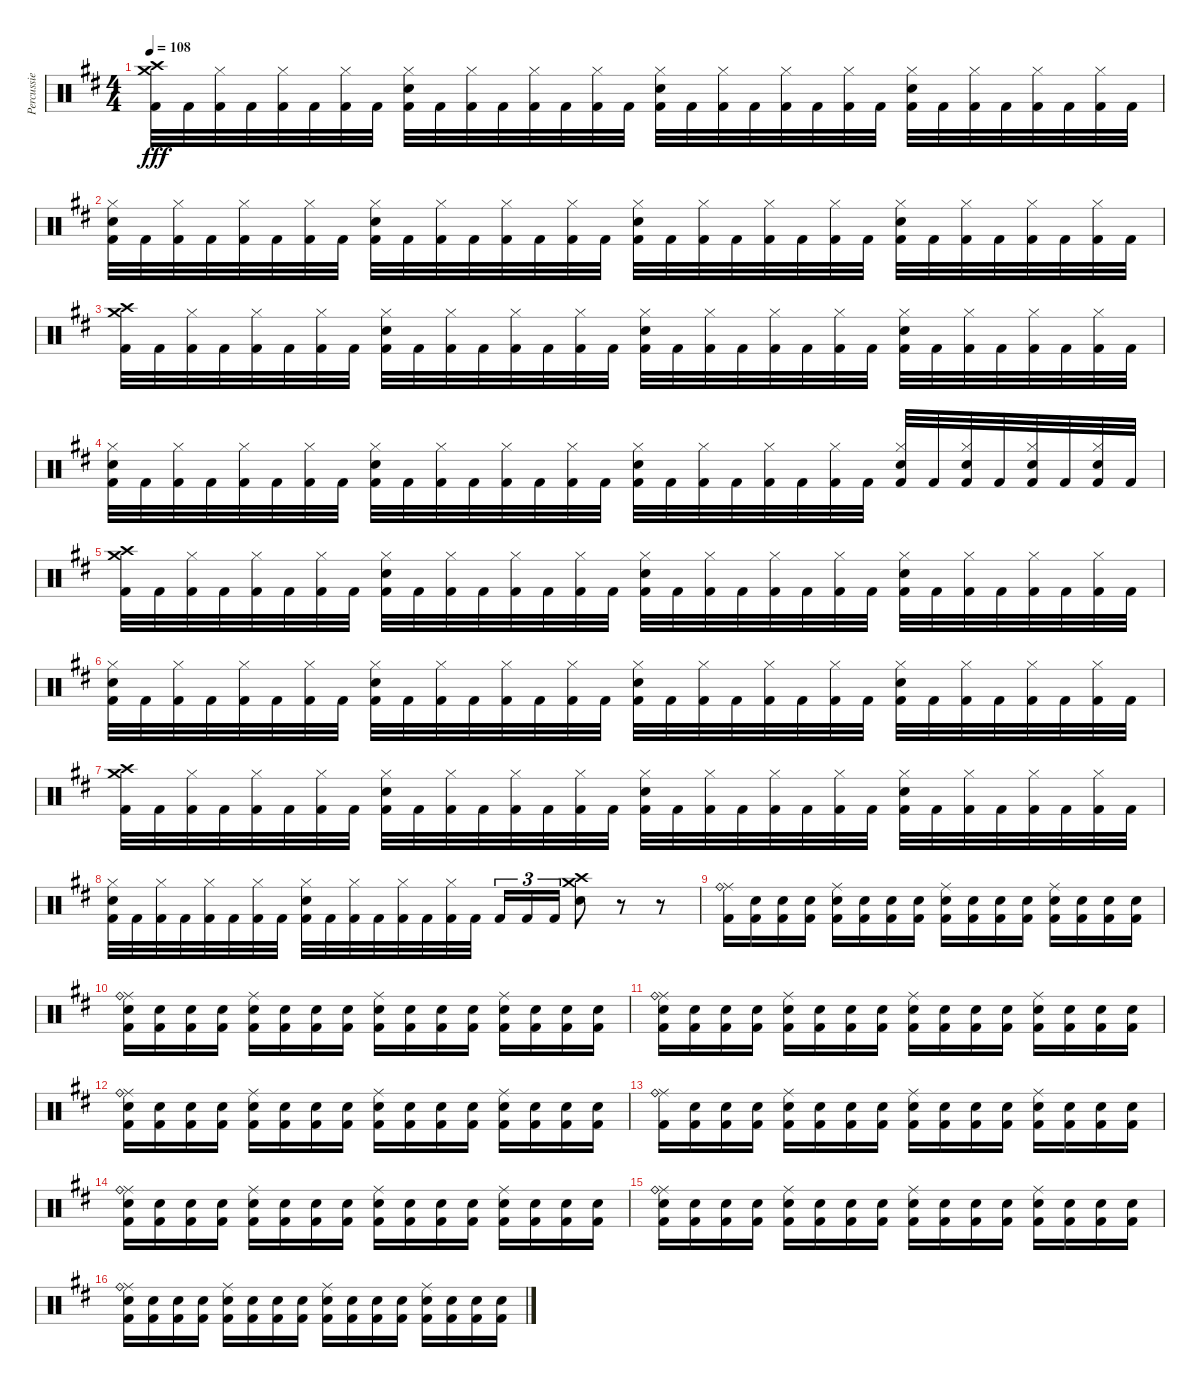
\track ("Percussie" "Percussie") {instrument percussion}
\staff {score}
\articulation defaults
\ts (4 4)
\tempo 108
\clef neutral
\ks d
("Crash high (hit)" "Crash medium (hit)" "Kick (hit) 2").32{dy fff} "Kick (hit) 2".32 ("Hi-Hat (closed)" "Kick (hit) 2").32 "Kick (hit) 2".32 ("Hi-Hat (closed)" "Kick (hit) 2").32 "Kick (hit) 2".32 ("Hi-Hat (closed)" "Kick (hit) 2").32 "Kick (hit) 2".32 ("Hi-Hat (closed)" "Snare (hit) 2" "Kick (hit) 2").32 "Kick (hit) 2".32 ("Hi-Hat (closed)" "Kick (hit) 2").32 "Kick (hit) 2".32 ("Hi-Hat (closed)" "Kick (hit) 2").32 "Kick (hit) 2".32 ("Hi-Hat (closed)" "Kick (hit) 2").32 "Kick (hit) 2".32 ("Hi-Hat (closed)" "Snare (hit) 2" "Kick (hit) 2").32 "Kick (hit) 2".32 ("Hi-Hat (closed)" "Kick (hit) 2").32 "Kick (hit) 2".32 ("Hi-Hat (closed)" "Kick (hit) 2").32 "Kick (hit) 2".32 ("Hi-Hat (closed)" "Kick (hit) 2").32 "Kick (hit) 2".32 ("Hi-Hat (closed)" "Snare (hit) 2" "Kick (hit) 2").32 "Kick (hit) 2".32 ("Hi-Hat (closed)" "Kick (hit) 2").32 "Kick (hit) 2".32 ("Hi-Hat (closed)" "Kick (hit) 2").32 "Kick (hit) 2".32 ("Hi-Hat (closed)" "Kick (hit) 2").32 "Kick (hit) 2".32 |
("Hi-Hat (closed)" "Snare (hit) 2" "Kick (hit) 2").32 "Kick (hit) 2".32 ("Hi-Hat (closed)" "Kick (hit) 2").32 "Kick (hit) 2".32 ("Hi-Hat (closed)" "Kick (hit) 2").32 "Kick (hit) 2".32 ("Hi-Hat (closed)" "Kick (hit) 2").32 "Kick (hit) 2".32 ("Hi-Hat (closed)" "Snare (hit) 2" "Kick (hit) 2").32 "Kick (hit) 2".32 ("Hi-Hat (closed)" "Kick (hit) 2").32 "Kick (hit) 2".32 ("Hi-Hat (closed)" "Kick (hit) 2").32 "Kick (hit) 2".32 ("Hi-Hat (closed)" "Kick (hit) 2").32 "Kick (hit) 2".32 ("Hi-Hat (closed)" "Snare (hit) 2" "Kick (hit) 2").32 "Kick (hit) 2".32 ("Hi-Hat (closed)" "Kick (hit) 2").32 "Kick (hit) 2".32 ("Hi-Hat (closed)" "Kick (hit) 2").32 "Kick (hit) 2".32 ("Hi-Hat (closed)" "Kick (hit) 2").32 "Kick (hit) 2".32 ("Hi-Hat (closed)" "Snare (hit) 2" "Kick (hit) 2").32 "Kick (hit) 2".32 ("Hi-Hat (closed)" "Kick (hit) 2").32 "Kick (hit) 2".32 ("Hi-Hat (closed)" "Kick (hit) 2").32 "Kick (hit) 2".32 ("Hi-Hat (closed)" "Kick (hit) 2").32 "Kick (hit) 2".32 |
("Crash high (hit)" "Crash medium (hit)" "Kick (hit) 2").32 "Kick (hit) 2".32 ("Hi-Hat (closed)" "Kick (hit) 2").32 "Kick (hit) 2".32 ("Hi-Hat (closed)" "Kick (hit) 2").32 "Kick (hit) 2".32 ("Hi-Hat (closed)" "Kick (hit) 2").32 "Kick (hit) 2".32 ("Hi-Hat (closed)" "Snare (hit) 2" "Kick (hit) 2").32 "Kick (hit) 2".32 ("Hi-Hat (closed)" "Kick (hit) 2").32 "Kick (hit) 2".32 ("Hi-Hat (closed)" "Kick (hit) 2").32 "Kick (hit) 2".32 ("Hi-Hat (closed)" "Kick (hit) 2").32 "Kick (hit) 2".32 ("Hi-Hat (closed)" "Snare (hit) 2" "Kick (hit) 2").32 "Kick (hit) 2".32 ("Hi-Hat (closed)" "Kick (hit) 2").32 "Kick (hit) 2".32 ("Hi-Hat (closed)" "Kick (hit) 2").32 "Kick (hit) 2".32 ("Hi-Hat (closed)" "Kick (hit) 2").32 "Kick (hit) 2".32 ("Hi-Hat (closed)" "Snare (hit) 2" "Kick (hit) 2").32 "Kick (hit) 2".32 ("Hi-Hat (closed)" "Kick (hit) 2").32 "Kick (hit) 2".32 ("Hi-Hat (closed)" "Kick (hit) 2").32 "Kick (hit) 2".32 ("Hi-Hat (closed)" "Kick (hit) 2").32 "Kick (hit) 2".32 |
("Hi-Hat (closed)" "Snare (hit) 2" "Kick (hit) 2").32 "Kick (hit) 2".32 ("Hi-Hat (closed)" "Kick (hit) 2").32 "Kick (hit) 2".32 ("Hi-Hat (closed)" "Kick (hit) 2").32 "Kick (hit) 2".32 ("Hi-Hat (closed)" "Kick (hit) 2").32 "Kick (hit) 2".32 ("Hi-Hat (closed)" "Snare (hit) 2" "Kick (hit) 2").32 "Kick (hit) 2".32 ("Hi-Hat (closed)" "Kick (hit) 2").32 "Kick (hit) 2".32 ("Hi-Hat (closed)" "Kick (hit) 2").32 "Kick (hit) 2".32 ("Hi-Hat (closed)" "Kick (hit) 2").32 "Kick (hit) 2".32 ("Hi-Hat (closed)" "Snare (hit) 2" "Kick (hit) 2").32 "Kick (hit) 2".32 ("Hi-Hat (closed)" "Kick (hit) 2").32 "Kick (hit) 2".32 ("Hi-Hat (closed)" "Kick (hit) 2").32 "Kick (hit) 2".32 ("Hi-Hat (closed)" "Kick (hit) 2").32 "Kick (hit) 2".32 ("Hi-Hat (closed)" "Snare (hit) 2" "Kick (hit) 2").32 "Kick (hit) 2".32 ("Hi-Hat (closed)" "Snare (hit) 2" "Kick (hit) 2").32 "Kick (hit) 2".32 ("Hi-Hat (closed)" "Snare (hit) 2" "Kick (hit) 2").32 "Kick (hit) 2".32 ("Hi-Hat (closed)" "Snare (hit) 2" "Kick (hit) 2").32 "Kick (hit) 2".32 |
("Crash high (hit)" "Crash medium (hit)" "Kick (hit) 2").32 "Kick (hit) 2".32 ("Hi-Hat (closed)" "Kick (hit) 2").32 "Kick (hit) 2".32 ("Hi-Hat (closed)" "Kick (hit) 2").32 "Kick (hit) 2".32 ("Hi-Hat (closed)" "Kick (hit) 2").32 "Kick (hit) 2".32 ("Hi-Hat (closed)" "Snare (hit) 2" "Kick (hit) 2").32 "Kick (hit) 2".32 ("Hi-Hat (closed)" "Kick (hit) 2").32 "Kick (hit) 2".32 ("Hi-Hat (closed)" "Kick (hit) 2").32 "Kick (hit) 2".32 ("Hi-Hat (closed)" "Kick (hit) 2").32 "Kick (hit) 2".32 ("Hi-Hat (closed)" "Snare (hit) 2" "Kick (hit) 2").32 "Kick (hit) 2".32 ("Hi-Hat (closed)" "Kick (hit) 2").32 "Kick (hit) 2".32 ("Hi-Hat (closed)" "Kick (hit) 2").32 "Kick (hit) 2".32 ("Hi-Hat (closed)" "Kick (hit) 2").32 "Kick (hit) 2".32 ("Hi-Hat (closed)" "Snare (hit) 2" "Kick (hit) 2").32 "Kick (hit) 2".32 ("Hi-Hat (closed)" "Kick (hit) 2").32 "Kick (hit) 2".32 ("Hi-Hat (closed)" "Kick (hit) 2").32 "Kick (hit) 2".32 ("Hi-Hat (closed)" "Kick (hit) 2").32 "Kick (hit) 2".32 |
("Hi-Hat (closed)" "Snare (hit) 2" "Kick (hit) 2").32 "Kick (hit) 2".32 ("Hi-Hat (closed)" "Kick (hit) 2").32 "Kick (hit) 2".32 ("Hi-Hat (closed)" "Kick (hit) 2").32 "Kick (hit) 2".32 ("Hi-Hat (closed)" "Kick (hit) 2").32 "Kick (hit) 2".32 ("Hi-Hat (closed)" "Snare (hit) 2" "Kick (hit) 2").32 "Kick (hit) 2".32 ("Hi-Hat (closed)" "Kick (hit) 2").32 "Kick (hit) 2".32 ("Hi-Hat (closed)" "Kick (hit) 2").32 "Kick (hit) 2".32 ("Hi-Hat (closed)" "Kick (hit) 2").32 "Kick (hit) 2".32 ("Hi-Hat (closed)" "Snare (hit) 2" "Kick (hit) 2").32 "Kick (hit) 2".32 ("Hi-Hat (closed)" "Kick (hit) 2").32 "Kick (hit) 2".32 ("Hi-Hat (closed)" "Kick (hit) 2").32 "Kick (hit) 2".32 ("Hi-Hat (closed)" "Kick (hit) 2").32 "Kick (hit) 2".32 ("Hi-Hat (closed)" "Snare (hit) 2" "Kick (hit) 2").32 "Kick (hit) 2".32 ("Hi-Hat (closed)" "Kick (hit) 2").32 "Kick (hit) 2".32 ("Hi-Hat (closed)" "Kick (hit) 2").32 "Kick (hit) 2".32 ("Hi-Hat (closed)" "Kick (hit) 2").32 "Kick (hit) 2".32 |
("Crash high (hit)" "Crash medium (hit)" "Kick (hit) 2").32 "Kick (hit) 2".32 ("Hi-Hat (closed)" "Kick (hit) 2").32 "Kick (hit) 2".32 ("Hi-Hat (closed)" "Kick (hit) 2").32 "Kick (hit) 2".32 ("Hi-Hat (closed)" "Kick (hit) 2").32 "Kick (hit) 2".32 ("Hi-Hat (closed)" "Snare (hit) 2" "Kick (hit) 2").32 "Kick (hit) 2".32 ("Hi-Hat (closed)" "Kick (hit) 2").32 "Kick (hit) 2".32 ("Hi-Hat (closed)" "Kick (hit) 2").32 "Kick (hit) 2".32 ("Hi-Hat (closed)" "Kick (hit) 2").32 "Kick (hit) 2".32 ("Hi-Hat (closed)" "Snare (hit) 2" "Kick (hit) 2").32 "Kick (hit) 2".32 ("Hi-Hat (closed)" "Kick (hit) 2").32 "Kick (hit) 2".32 ("Hi-Hat (closed)" "Kick (hit) 2").32 "Kick (hit) 2".32 ("Hi-Hat (closed)" "Kick (hit) 2").32 "Kick (hit) 2".32 ("Hi-Hat (closed)" "Snare (hit) 2" "Kick (hit) 2").32 "Kick (hit) 2".32 ("Hi-Hat (closed)" "Kick (hit) 2").32 "Kick (hit) 2".32 ("Hi-Hat (closed)" "Kick (hit) 2").32 "Kick (hit) 2".32 ("Hi-Hat (closed)" "Kick (hit) 2").32 "Kick (hit) 2".32 |
("Hi-Hat (closed)" "Snare (hit) 2" "Kick (hit) 2").32 "Kick (hit) 2".32 ("Hi-Hat (closed)" "Kick (hit) 2").32 "Kick (hit) 2".32 ("Hi-Hat (closed)" "Kick (hit) 2").32 "Kick (hit) 2".32 ("Hi-Hat (closed)" "Kick (hit) 2").32 "Kick (hit) 2".32 ("Hi-Hat (closed)" "Snare (hit) 2" "Kick (hit) 2").32 "Kick (hit) 2".32 ("Hi-Hat (closed)" "Kick (hit) 2").32 "Kick (hit) 2".32 ("Hi-Hat (closed)" "Kick (hit) 2").32 "Kick (hit) 2".32 ("Hi-Hat (closed)" "Kick (hit) 2").32 "Kick (hit) 2".32 "Kick (hit) 2".16{tu (3 2)} "Kick (hit) 2".16{tu (3 2)} "Kick (hit) 2".16{tu (3 2)} ("Crash medium (hit)" "Crash high (hit)" "Snare (hit) 2").8 r.8 r.8 |
("Ride (middle)" "Ride (bell)" "Kick (hit) 2").16 ("Snare (hit) 2" "Kick (hit) 2").16 ("Snare (hit) 2" "Kick (hit) 2").16 ("Snare (hit) 2" "Kick (hit) 2").16 ("Ride (middle)" "Snare (hit) 2" "Kick (hit) 2").16 ("Snare (hit) 2" "Kick (hit) 2").16 ("Snare (hit) 2" "Kick (hit) 2").16 ("Snare (hit) 2" "Kick (hit) 2").16 ("Ride (middle)" "Snare (hit) 2" "Kick (hit) 2").16 ("Snare (hit) 2" "Kick (hit) 2").16 ("Snare (hit) 2" "Kick (hit) 2").16 ("Snare (hit) 2" "Kick (hit) 2").16 ("Ride (middle)" "Snare (hit) 2" "Kick (hit) 2").16 ("Snare (hit) 2" "Kick (hit) 2").16 ("Snare (hit) 2" "Kick (hit) 2").16 ("Snare (hit) 2" "Kick (hit) 2").16 |
("Ride (middle)" "Ride (bell)" "Snare (hit) 2" "Kick (hit) 2").16 ("Snare (hit) 2" "Kick (hit) 2").16 ("Snare (hit) 2" "Kick (hit) 2").16 ("Snare (hit) 2" "Kick (hit) 2").16 ("Ride (middle)" "Snare (hit) 2" "Kick (hit) 2").16 ("Snare (hit) 2" "Kick (hit) 2").16 ("Snare (hit) 2" "Kick (hit) 2").16 ("Snare (hit) 2" "Kick (hit) 2").16 ("Ride (middle)" "Snare (hit) 2" "Kick (hit) 2").16 ("Snare (hit) 2" "Kick (hit) 2").16 ("Snare (hit) 2" "Kick (hit) 2").16 ("Snare (hit) 2" "Kick (hit) 2").16 ("Ride (middle)" "Snare (hit) 2" "Kick (hit) 2").16 ("Snare (hit) 2" "Kick (hit) 2").16 ("Snare (hit) 2" "Kick (hit) 2").16 ("Snare (hit) 2" "Kick (hit) 2").16 |
("Ride (middle)" "Ride (bell)" "Snare (hit) 2" "Kick (hit) 2").16 ("Snare (hit) 2" "Kick (hit) 2").16 ("Snare (hit) 2" "Kick (hit) 2").16 ("Snare (hit) 2" "Kick (hit) 2").16 ("Ride (middle)" "Snare (hit) 2" "Kick (hit) 2").16 ("Snare (hit) 2" "Kick (hit) 2").16 ("Snare (hit) 2" "Kick (hit) 2").16 ("Snare (hit) 2" "Kick (hit) 2").16 ("Ride (middle)" "Snare (hit) 2" "Kick (hit) 2").16 ("Snare (hit) 2" "Kick (hit) 2").16 ("Snare (hit) 2" "Kick (hit) 2").16 ("Snare (hit) 2" "Kick (hit) 2").16 ("Ride (middle)" "Snare (hit) 2" "Kick (hit) 2").16 ("Snare (hit) 2" "Kick (hit) 2").16 ("Snare (hit) 2" "Kick (hit) 2").16 ("Snare (hit) 2" "Kick (hit) 2").16 |
("Ride (middle)" "Ride (bell)" "Snare (hit) 2" "Kick (hit) 2").16 ("Snare (hit) 2" "Kick (hit) 2").16 ("Snare (hit) 2" "Kick (hit) 2").16 ("Snare (hit) 2" "Kick (hit) 2").16 ("Ride (middle)" "Snare (hit) 2" "Kick (hit) 2").16 ("Snare (hit) 2" "Kick (hit) 2").16 ("Snare (hit) 2" "Kick (hit) 2").16 ("Snare (hit) 2" "Kick (hit) 2").16 ("Ride (middle)" "Snare (hit) 2" "Kick (hit) 2").16 ("Snare (hit) 2" "Kick (hit) 2").16 ("Snare (hit) 2" "Kick (hit) 2").16 ("Snare (hit) 2" "Kick (hit) 2").16 ("Ride (middle)" "Snare (hit) 2" "Kick (hit) 2").16 ("Snare (hit) 2" "Kick (hit) 2").16 ("Snare (hit) 2" "Kick (hit) 2").16 ("Snare (hit) 2" "Kick (hit) 2").16 |
("Ride (middle)" "Ride (bell)" "Kick (hit) 2").16 ("Snare (hit) 2" "Kick (hit) 2").16 ("Snare (hit) 2" "Kick (hit) 2").16 ("Snare (hit) 2" "Kick (hit) 2").16 ("Ride (middle)" "Snare (hit) 2" "Kick (hit) 2").16 ("Snare (hit) 2" "Kick (hit) 2").16 ("Snare (hit) 2" "Kick (hit) 2").16 ("Snare (hit) 2" "Kick (hit) 2").16 ("Ride (middle)" "Snare (hit) 2" "Kick (hit) 2").16 ("Snare (hit) 2" "Kick (hit) 2").16 ("Snare (hit) 2" "Kick (hit) 2").16 ("Snare (hit) 2" "Kick (hit) 2").16 ("Ride (middle)" "Snare (hit) 2" "Kick (hit) 2").16 ("Snare (hit) 2" "Kick (hit) 2").16 ("Snare (hit) 2" "Kick (hit) 2").16 ("Snare (hit) 2" "Kick (hit) 2").16 |
("Ride (middle)" "Ride (bell)" "Snare (hit) 2" "Kick (hit) 2").16 ("Snare (hit) 2" "Kick (hit) 2").16 ("Snare (hit) 2" "Kick (hit) 2").16 ("Snare (hit) 2" "Kick (hit) 2").16 ("Ride (middle)" "Snare (hit) 2" "Kick (hit) 2").16 ("Snare (hit) 2" "Kick (hit) 2").16 ("Snare (hit) 2" "Kick (hit) 2").16 ("Snare (hit) 2" "Kick (hit) 2").16 ("Ride (middle)" "Snare (hit) 2" "Kick (hit) 2").16 ("Snare (hit) 2" "Kick (hit) 2").16 ("Snare (hit) 2" "Kick (hit) 2").16 ("Snare (hit) 2" "Kick (hit) 2").16 ("Ride (middle)" "Snare (hit) 2" "Kick (hit) 2").16 ("Snare (hit) 2" "Kick (hit) 2").16 ("Snare (hit) 2" "Kick (hit) 2").16 ("Snare (hit) 2" "Kick (hit) 2").16 |
("Ride (middle)" "Ride (bell)" "Snare (hit) 2" "Kick (hit) 2").16 ("Snare (hit) 2" "Kick (hit) 2").16 ("Snare (hit) 2" "Kick (hit) 2").16 ("Snare (hit) 2" "Kick (hit) 2").16 ("Ride (middle)" "Snare (hit) 2" "Kick (hit) 2").16 ("Snare (hit) 2" "Kick (hit) 2").16 ("Snare (hit) 2" "Kick (hit) 2").16 ("Snare (hit) 2" "Kick (hit) 2").16 ("Ride (middle)" "Snare (hit) 2" "Kick (hit) 2").16 ("Snare (hit) 2" "Kick (hit) 2").16 ("Snare (hit) 2" "Kick (hit) 2").16 ("Snare (hit) 2" "Kick (hit) 2").16 ("Ride (middle)" "Snare (hit) 2" "Kick (hit) 2").16 ("Snare (hit) 2" "Kick (hit) 2").16 ("Snare (hit) 2" "Kick (hit) 2").16 ("Snare (hit) 2" "Kick (hit) 2").16 |
("Ride (middle)" "Ride (bell)" "Snare (hit) 2" "Kick (hit) 2").16 ("Snare (hit) 2" "Kick (hit) 2").16 ("Snare (hit) 2" "Kick (hit) 2").16 ("Snare (hit) 2" "Kick (hit) 2").16 ("Ride (middle)" "Snare (hit) 2" "Kick (hit) 2").16 ("Snare (hit) 2" "Kick (hit) 2").16 ("Snare (hit) 2" "Kick (hit) 2").16 ("Snare (hit) 2" "Kick (hit) 2").16 ("Ride (middle)" "Snare (hit) 2" "Kick (hit) 2").16 ("Snare (hit) 2" "Kick (hit) 2").16 ("Snare (hit) 2" "Kick (hit) 2").16 ("Snare (hit) 2" "Kick (hit) 2").16 ("Ride (middle)" "Snare (hit) 2" "Kick (hit) 2").16 ("Snare (hit) 2" "Kick (hit) 2").16 ("Snare (hit) 2" "Kick (hit) 2").16 ("Snare (hit) 2" "Kick (hit) 2").16
